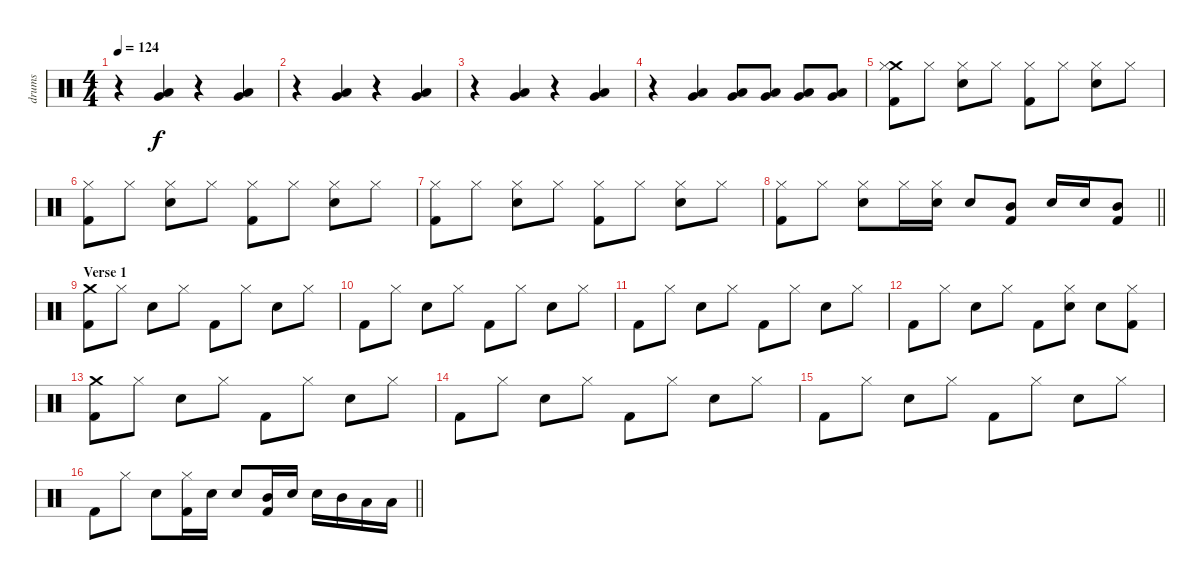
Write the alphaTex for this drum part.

\track ("drums" "drums") {instrument percussion}
\staff {score}
\articulation defaults
\ts (4 4)
\tempo 124
\clef neutral
\ks c
r.4{dy f} ("Very Low Tom (hit)" "Low Floor Tom (hit)").4 r.4 ("Very Low Tom (hit)" "Low Floor Tom (hit)").4 |
r.4 ("Very Low Tom (hit)" "Low Floor Tom (hit)").4 r.4 ("Very Low Tom (hit)" "Low Floor Tom (hit)").4 |
r.4 ("Very Low Tom (hit)" "Low Floor Tom (hit)").4 r.4 ("Very Low Tom (hit)" "Low Floor Tom (hit)").4 |
r.4 ("Very Low Tom (hit)" "Low Floor Tom (hit)").4 ("Very Low Tom (hit)" "Low Floor Tom (hit)").8 ("Very Low Tom (hit)" "Low Floor Tom (hit)").8 ("Very Low Tom (hit)" "Low Floor Tom (hit)").8 ("Very Low Tom (hit)" "Low Floor Tom (hit)").8 |
("Crash medium (hit)" "Hi-Hat (closed)" "Kick (hit) 2").8 "Hi-Hat (closed)".8 ("Hi-Hat (closed)" "Snare (hit) 2").8 "Hi-Hat (closed)".8 ("Hi-Hat (closed)" "Kick (hit) 2").8 "Hi-Hat (closed)".8 ("Hi-Hat (closed)" "Snare (hit) 2").8 "Hi-Hat (closed)".8 |
("Hi-Hat (closed)" "Kick (hit) 2").8 "Hi-Hat (closed)".8 ("Hi-Hat (closed)" "Snare (hit) 2").8 "Hi-Hat (closed)".8 ("Hi-Hat (closed)" "Kick (hit) 2").8 "Hi-Hat (closed)".8 ("Hi-Hat (closed)" "Snare (hit) 2").8 "Hi-Hat (closed)".8 |
("Hi-Hat (closed)" "Kick (hit) 2").8 "Hi-Hat (closed)".8 ("Hi-Hat (closed)" "Snare (hit) 2").8 "Hi-Hat (closed)".8 ("Hi-Hat (closed)" "Kick (hit) 2").8 "Hi-Hat (closed)".8 ("Hi-Hat (closed)" "Snare (hit) 2").8 "Hi-Hat (closed)".8 |
\barLineRight lightlight
("Hi-Hat (closed)" "Kick (hit) 2").8 "Hi-Hat (closed)".8 ("Hi-Hat (closed)" "Snare (hit) 2").8 "Hi-Hat (closed)".16 ("Hi-Hat (closed)" "Snare (hit) 2").16 "Snare (hit) 2".8 ("Mid Tom (hit)" "Kick (hit) 2").8 "Snare (hit) 2".16 "Snare (hit) 2".16 ("Mid Tom (hit)" "Kick (hit) 2").8 |
\section ("" "Verse 1")
("Crash medium (hit)" "Kick (hit) 2").8 "Hi-Hat (closed)".8 "Snare (hit) 2".8 "Hi-Hat (closed)".8 "Kick (hit) 2".8 "Hi-Hat (closed)".8 "Snare (hit) 2".8 "Hi-Hat (closed)".8 |
"Kick (hit) 2".8 "Hi-Hat (closed)".8 "Snare (hit) 2".8 "Hi-Hat (closed)".8 "Kick (hit) 2".8 "Hi-Hat (closed)".8 "Snare (hit) 2".8 "Hi-Hat (closed)".8 |
"Kick (hit) 2".8 "Hi-Hat (closed)".8 "Snare (hit) 2".8 "Hi-Hat (closed)".8 "Kick (hit) 2".8 "Hi-Hat (closed)".8 "Snare (hit) 2".8 "Hi-Hat (closed)".8 |
"Kick (hit) 2".8 "Hi-Hat (closed)".8 "Snare (hit) 2".8 "Hi-Hat (closed)".8 "Kick (hit) 2".8 ("Hi-Hat (closed)" "Snare (hit) 2").8 "Snare (hit) 2".8 ("Hi-Hat (closed)" "Kick (hit) 2").8 |
("Crash medium (hit)" "Kick (hit) 2").8 "Hi-Hat (closed)".8 "Snare (hit) 2".8 "Hi-Hat (closed)".8 "Kick (hit) 2".8 "Hi-Hat (closed)".8 "Snare (hit) 2".8 "Hi-Hat (closed)".8 |
"Kick (hit) 2".8 "Hi-Hat (closed)".8 "Snare (hit) 2".8 "Hi-Hat (closed)".8 "Kick (hit) 2".8 "Hi-Hat (closed)".8 "Snare (hit) 2".8 "Hi-Hat (closed)".8 |
"Kick (hit) 2".8 "Hi-Hat (closed)".8 "Snare (hit) 2".8 "Hi-Hat (closed)".8 "Kick (hit) 2".8 "Hi-Hat (closed)".8 "Snare (hit) 2".8 "Hi-Hat (closed)".8 |
\barLineRight lightlight "Kick (hit) 2".8 "Hi-Hat (closed)".8 "Snare (hit) 2".8
("Hi-Hat (closed)" "Kick (hit) 2").16 "Snare (hit) 2".16 "Snare (hit) 2".8 ("Mid Tom (hit)" "Kick (hit) 2").16 "Snare (hit) 2".16 "Snare (hit) 2".16 "Mid Tom (hit)".16 "Low Tom (hit)".16 "Low Tom (hit)".16
